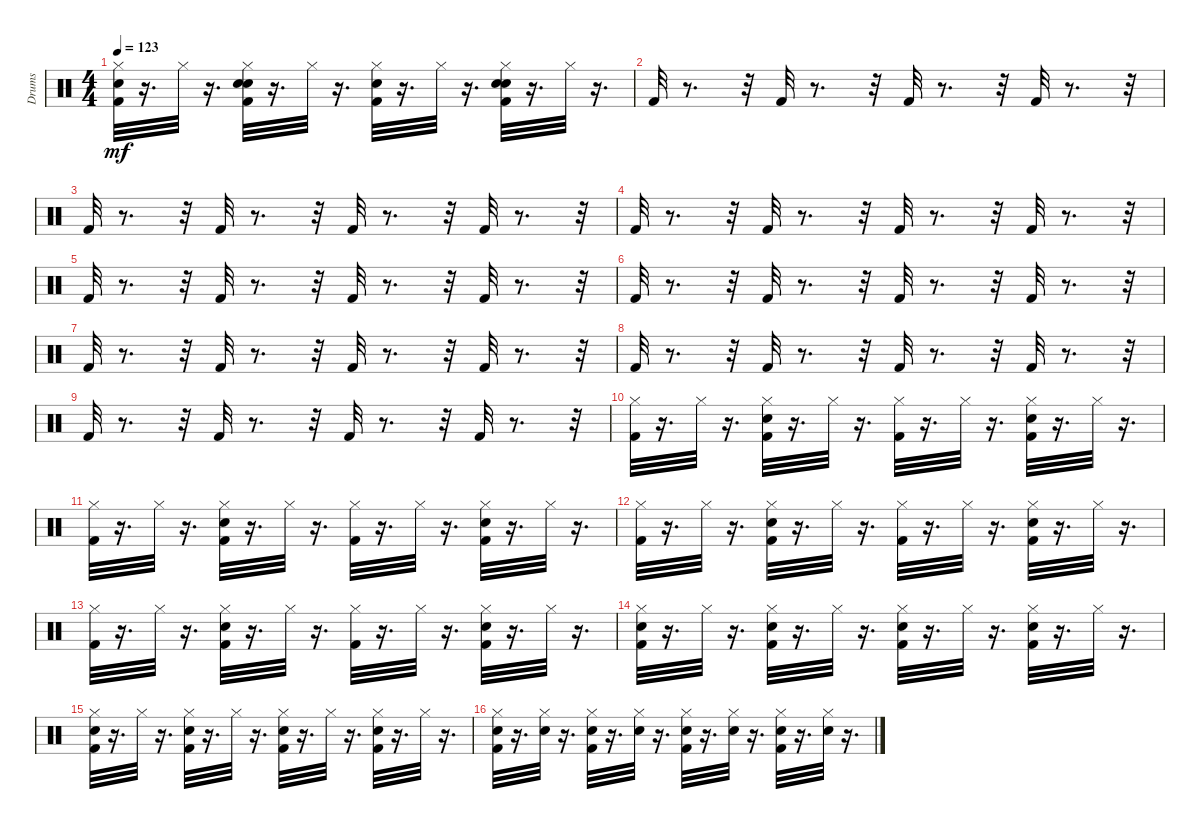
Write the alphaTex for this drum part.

\track ("Drums" "Drums") {instrument percussion}
\staff {score}
\articulation defaults
\ts (4 4)
\tempo 123
\clef neutral
\ks c
("Kick (hit) 2" "Hand Clap (hit)" "Hi-Hat (closed)").32{dy mf} r.16{d} "Hi-Hat (closed)".32 r.16{d} ("Kick (hit) 2" "Snare (hit) 2" "Hand Clap (hit)" "Hi-Hat (closed)").32 r.16{d} "Hi-Hat (closed)".32 r.16{d} ("Kick (hit) 2" "Hand Clap (hit)" "Hi-Hat (closed)").32 r.16{d} "Hi-Hat (closed)".32 r.16{d} ("Kick (hit) 2" "Snare (hit) 2" "Hand Clap (hit)" "Hi-Hat (closed)").32 r.16{d} "Hi-Hat (closed)".32 r.16{d} |
"Kick (hit) 2".32 r.8{d} r.32 "Kick (hit) 2".32 r.8{d} r.32 "Kick (hit) 2".32 r.8{d} r.32 "Kick (hit) 2".32 r.8{d} r.32 |
"Kick (hit) 2".32 r.8{d} r.32 "Kick (hit) 2".32 r.8{d} r.32 "Kick (hit) 2".32 r.8{d} r.32 "Kick (hit) 2".32 r.8{d} r.32 |
"Kick (hit) 2".32 r.8{d} r.32 "Kick (hit) 2".32 r.8{d} r.32 "Kick (hit) 2".32 r.8{d} r.32 "Kick (hit) 2".32 r.8{d} r.32 |
"Kick (hit) 2".32 r.8{d} r.32 "Kick (hit) 2".32 r.8{d} r.32 "Kick (hit) 2".32 r.8{d} r.32 "Kick (hit) 2".32 r.8{d} r.32 |
"Kick (hit) 2".32 r.8{d} r.32 "Kick (hit) 2".32 r.8{d} r.32 "Kick (hit) 2".32 r.8{d} r.32 "Kick (hit) 2".32 r.8{d} r.32 |
"Kick (hit) 2".32 r.8{d} r.32 "Kick (hit) 2".32 r.8{d} r.32 "Kick (hit) 2".32 r.8{d} r.32 "Kick (hit) 2".32 r.8{d} r.32 |
"Kick (hit) 2".32 r.8{d} r.32 "Kick (hit) 2".32 r.8{d} r.32 "Kick (hit) 2".32 r.8{d} r.32 "Kick (hit) 2".32 r.8{d} r.32 |
"Kick (hit) 2".32 r.8{d} r.32 "Kick (hit) 2".32 r.8{d} r.32 "Kick (hit) 2".32 r.8{d} r.32 "Kick (hit) 2".32 r.8{d} r.32 |
("Kick (hit) 2" "Hi-Hat (closed)").32 r.16{d} "Hi-Hat (closed)".32 r.16{d} ("Kick (hit) 2" "Snare (hit) 2" "Hi-Hat (closed)").32 r.16{d} "Hi-Hat (closed)".32 r.16{d} ("Kick (hit) 2" "Hi-Hat (closed)").32 r.16{d} "Hi-Hat (closed)".32 r.16{d} ("Kick (hit) 2" "Snare (hit) 2" "Hi-Hat (closed)").32 r.16{d} "Hi-Hat (closed)".32 r.16{d} |
("Kick (hit) 2" "Hi-Hat (closed)").32 r.16{d} "Hi-Hat (closed)".32 r.16{d} ("Kick (hit) 2" "Snare (hit) 2" "Hi-Hat (closed)").32 r.16{d} "Hi-Hat (closed)".32 r.16{d} ("Kick (hit) 2" "Hi-Hat (closed)").32 r.16{d} "Hi-Hat (closed)".32 r.16{d} ("Kick (hit) 2" "Snare (hit) 2" "Hi-Hat (closed)").32 r.16{d} "Hi-Hat (closed)".32 r.16{d} |
("Kick (hit) 2" "Hi-Hat (closed)").32 r.16{d} "Hi-Hat (closed)".32 r.16{d} ("Kick (hit) 2" "Snare (hit) 2" "Hi-Hat (closed)").32 r.16{d} "Hi-Hat (closed)".32 r.16{d} ("Kick (hit) 2" "Hi-Hat (closed)").32 r.16{d} "Hi-Hat (closed)".32 r.16{d} ("Kick (hit) 2" "Snare (hit) 2" "Hi-Hat (closed)").32 r.16{d} "Hi-Hat (closed)".32 r.16{d} |
("Kick (hit) 2" "Hi-Hat (closed)").32 r.16{d} "Hi-Hat (closed)".32 r.16{d} ("Kick (hit) 2" "Snare (hit) 2" "Hi-Hat (closed)").32 r.16{d} "Hi-Hat (closed)".32 r.16{d} ("Kick (hit) 2" "Hi-Hat (closed)").32 r.16{d} "Hi-Hat (closed)".32 r.16{d} ("Kick (hit) 2" "Snare (hit) 2" "Hi-Hat (closed)").32 r.16{d} "Hi-Hat (closed)".32 r.16{d} |
("Kick (hit) 2" "Electric Snare (hit)" "Hi-Hat (closed)").32 r.16{d} "Hi-Hat (closed)".32 r.16{d} ("Kick (hit) 2" "Electric Snare (hit)" "Hi-Hat (closed)").32 r.16{d} "Hi-Hat (closed)".32 r.16{d} ("Kick (hit) 2" "Electric Snare (hit)" "Hi-Hat (closed)").32 r.16{d} "Hi-Hat (closed)".32 r.16{d} ("Kick (hit) 2" "Electric Snare (hit)" "Hi-Hat (closed)").32 r.16{d} "Hi-Hat (closed)".32 r.16{d} |
("Kick (hit) 2" "Electric Snare (hit)" "Hi-Hat (closed)").32 r.16{d} "Hi-Hat (closed)".32 r.16{d} ("Kick (hit) 2" "Electric Snare (hit)" "Hi-Hat (closed)").32 r.16{d} "Hi-Hat (closed)".32 r.16{d} ("Kick (hit) 2" "Electric Snare (hit)" "Hi-Hat (closed)").32 r.16{d} "Hi-Hat (closed)".32 r.16{d} ("Kick (hit) 2" "Electric Snare (hit)" "Hi-Hat (closed)").32 r.16{d} "Hi-Hat (closed)".32 r.16{d} |
("Kick (hit) 2" "Electric Snare (hit)" "Hi-Hat (closed)").32 r.16{d} ("Snare (hit) 2" "Hi-Hat (closed)").32 r.16{d} ("Kick (hit) 2" "Electric Snare (hit)" "Hi-Hat (closed)").32 r.16{d} ("Snare (hit) 2" "Hi-Hat (closed)").32 r.16{d} ("Kick (hit) 2" "Electric Snare (hit)" "Hi-Hat (closed)").32 r.16{d} ("Snare (hit) 2" "Hi-Hat (closed)").32 r.16{d} ("Kick (hit) 2" "Electric Snare (hit)" "Hi-Hat (closed)").32 r.16{d} ("Snare (hit) 2" "Hi-Hat (closed)").32 r.16{d}
